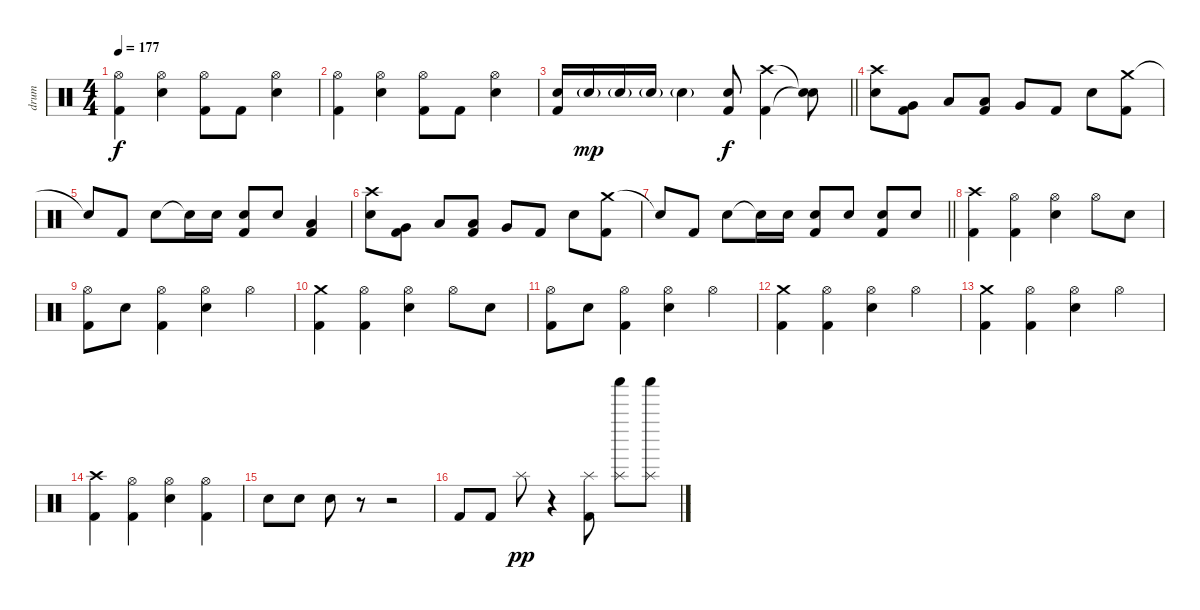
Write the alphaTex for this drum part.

\track ("drum" "drum") {instrument percussion}
\staff {score}
\articulation defaults
\ts (4 4)
\tempo 177
\clef neutral
\ks c
("Hi-Hat (open)" "Kick (hit) 2").4{dy f} ("Hi-Hat (open)" "Electric Snare (hit)").4 ("Hi-Hat (open)" "Kick (hit) 2").8 "Kick (hit) 2".8 ("Hi-Hat (open)" "Electric Snare (hit)").4 |
("Hi-Hat (open)" "Kick (hit) 2").4 ("Hi-Hat (open)" "Electric Snare (hit)").4 ("Hi-Hat (open)" "Kick (hit) 2").8 "Kick (hit) 2".8 ("Hi-Hat (open)" "Electric Snare (hit)").4 |
\barLineRight lightlight
("Electric Snare (hit)" "Kick (hit) 2").16 "Electric Snare (hit)"{g}.16{dy mp} "Electric Snare (hit)"{g}.16 "Electric Snare (hit)"{g}.16 "Electric Snare (hit)"{g}.4 ("Electric Snare (hit)" "Kick (hit) 2").8{dy f} ("Crash high (hit)" "Kick (hit) 2").4 ("Snare (hit)"{t} "Snare (hit)"{t}).8 |
\section ("" "")
("Crash high (hit)" "Electric Snare (hit)").8 ("Very Low Tom (hit)" "Kick (hit) 2").8 "Low Tom (hit)".8 ("Low Tom (hit)" "Kick (hit) 2").8 "Very Low Tom (hit)".8 "Kick (hit) 2".8 "Electric Snare (hit)".8 ("Crash medium (hit)" "Kick (hit) 2").8 |
"Snare (hit)"{t}.8 "Kick (hit) 2".8 "Electric Snare (hit)".8 "Snare (hit)"{t}.16 "Electric Snare (hit)".16 ("Electric Snare (hit)" "Kick (hit) 2").8 "Electric Snare (hit)".8 ("Low Tom (hit)" "Kick (hit) 2").4 |
("Crash high (hit)" "Electric Snare (hit)").8 ("Very Low Tom (hit)" "Kick (hit) 2").8 "Low Tom (hit)".8 ("Low Tom (hit)" "Kick (hit) 2").8 "Very Low Tom (hit)".8 "Kick (hit) 2".8 "Electric Snare (hit)".8 ("Crash medium (hit)" "Kick (hit) 2").8 |
\barLineRight lightlight "Snare (hit)"{t}.8 "Kick (hit) 2".8 "Electric Snare (hit)".8 "Snare (hit)"{t}.16 "Electric Snare (hit)".16
("Electric Snare (hit)" "Kick (hit) 2").8 "Electric Snare (hit)".8 ("Electric Snare (hit)" "Kick (hit) 2").8 "Electric Snare (hit)".8 |
\section ("" "")
("Crash high (hit)" "Kick (hit) 2").4 ("Hi-Hat (open)" "Kick (hit) 2").4 ("Hi-Hat (open)" "Electric Snare (hit)").4 "Hi-Hat (open)".8 "Electric Snare (hit)".8 |
("Hi-Hat (open)" "Kick (hit) 2").8 "Electric Snare (hit)".8 ("Hi-Hat (open)" "Kick (hit) 2").4 ("Hi-Hat (open)" "Electric Snare (hit)").4 "Hi-Hat (open)".4 |
("Crash medium (hit)" "Kick (hit) 2").4 ("Hi-Hat (open)" "Kick (hit) 2").4 ("Hi-Hat (open)" "Electric Snare (hit)").4 "Hi-Hat (open)".8 "Electric Snare (hit)".8 |
("Hi-Hat (open)" "Kick (hit) 2").8 "Electric Snare (hit)".8 ("Hi-Hat (open)" "Kick (hit) 2").4 ("Hi-Hat (open)" "Electric Snare (hit)").4 "Hi-Hat (open)".4 |
("Crash medium (hit)" "Kick (hit) 2").4 ("Hi-Hat (open)" "Kick (hit) 2").4 ("Hi-Hat (open)" "Electric Snare (hit)").4 "Hi-Hat (open)".4 |
("Crash medium (hit)" "Kick (hit) 2").4 ("Hi-Hat (open)" "Kick (hit) 2").4 ("Hi-Hat (open)" "Electric Snare (hit)").4 "Hi-Hat (open)".4 |
("Crash high (hit)" "Kick (hit) 2").4 ("Hi-Hat (open)" "Kick (hit) 2").4 ("Hi-Hat (open)" "Electric Snare (hit)").4 ("Hi-Hat (open)" "Kick (hit) 2").4 |
"Electric Snare (hit)".8 "Electric Snare (hit)".8 "Electric Snare (hit)".8 r.8 r.2 |
\section ("" "")
"Kick (hit) 2".8 "Kick (hit) 2".8 "Splash (hit)".8{dy pp} r.4 ("Splash (hit)" "Kick (hit) 2").8 ("Splash (hit)" "Shaker (hit)").8 ("Splash (hit)" "Shaker (hit)").8
